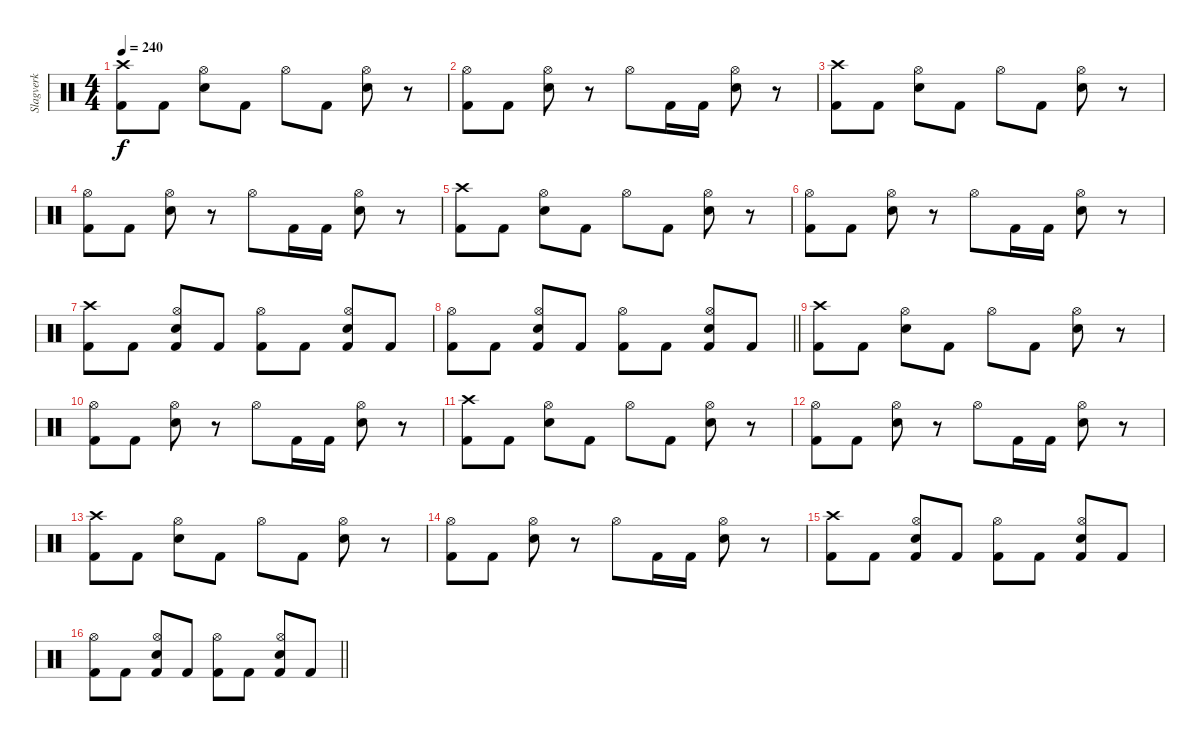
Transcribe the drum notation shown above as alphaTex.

\track ("Slagverk" "Slagverk") {instrument percussion}
\staff {score}
\articulation defaults
\ts (4 4)
\section ("" "")
\tempo 240
\clef neutral
\ks c
("Crash high (hit)" "Kick (hit) 2").8{dy f} "Kick (hit) 2".8 ("Hi-Hat (open)" "Electric Snare (hit)").8 "Kick (hit) 2".8 "Hi-Hat (open)".8 "Kick (hit) 2".8 ("Hi-Hat (open)" "Electric Snare (hit)").8 r.8 |
("Hi-Hat (open)" "Kick (hit) 2").8 "Kick (hit) 2".8 ("Hi-Hat (open)" "Electric Snare (hit)").8 r.8 "Hi-Hat (open)".8 "Kick (hit) 2".16 "Kick (hit) 2".16 ("Hi-Hat (open)" "Electric Snare (hit)").8 r.8 |
("Crash high (hit)" "Kick (hit) 2").8 "Kick (hit) 2".8 ("Hi-Hat (open)" "Electric Snare (hit)").8 "Kick (hit) 2".8 "Hi-Hat (open)".8 "Kick (hit) 2".8 ("Hi-Hat (open)" "Electric Snare (hit)").8 r.8 |
("Hi-Hat (open)" "Kick (hit) 2").8 "Kick (hit) 2".8 ("Hi-Hat (open)" "Electric Snare (hit)").8 r.8 "Hi-Hat (open)".8 "Kick (hit) 2".16 "Kick (hit) 2".16 ("Hi-Hat (open)" "Electric Snare (hit)").8 r.8 |
("Crash high (hit)" "Kick (hit) 2").8 "Kick (hit) 2".8 ("Hi-Hat (open)" "Electric Snare (hit)").8 "Kick (hit) 2".8 "Hi-Hat (open)".8 "Kick (hit) 2".8 ("Hi-Hat (open)" "Electric Snare (hit)").8 r.8 |
("Hi-Hat (open)" "Kick (hit) 2").8 "Kick (hit) 2".8 ("Hi-Hat (open)" "Electric Snare (hit)").8 r.8 "Hi-Hat (open)".8 "Kick (hit) 2".16 "Kick (hit) 2".16 ("Hi-Hat (open)" "Electric Snare (hit)").8 r.8 |
("Crash high (hit)" "Kick (hit) 2").8 "Kick (hit) 2".8 ("Hi-Hat (open)" "Electric Snare (hit)" "Kick (hit) 2").8 "Kick (hit) 2".8 ("Hi-Hat (open)" "Kick (hit) 2").8 "Kick (hit) 2".8 ("Hi-Hat (open)" "Electric Snare (hit)" "Kick (hit) 2").8 "Kick (hit) 2".8 |
\barLineRight lightlight
("Hi-Hat (open)" "Kick (hit) 2").8 "Kick (hit) 2".8 ("Hi-Hat (open)" "Electric Snare (hit)" "Kick (hit) 2").8 "Kick (hit) 2".8 ("Hi-Hat (open)" "Kick (hit) 2").8 "Kick (hit) 2".8 ("Hi-Hat (open)" "Electric Snare (hit)" "Kick (hit) 2").8 "Kick (hit) 2".8 |
\section ("" "")
("Crash high (hit)" "Kick (hit) 2").8 "Kick (hit) 2".8 ("Hi-Hat (open)" "Electric Snare (hit)").8 "Kick (hit) 2".8 "Hi-Hat (open)".8 "Kick (hit) 2".8 ("Hi-Hat (open)" "Electric Snare (hit)").8 r.8 |
("Hi-Hat (open)" "Kick (hit) 2").8 "Kick (hit) 2".8 ("Hi-Hat (open)" "Electric Snare (hit)").8 r.8 "Hi-Hat (open)".8 "Kick (hit) 2".16 "Kick (hit) 2".16 ("Hi-Hat (open)" "Electric Snare (hit)").8 r.8 |
("Crash high (hit)" "Kick (hit) 2").8 "Kick (hit) 2".8 ("Hi-Hat (open)" "Electric Snare (hit)").8 "Kick (hit) 2".8 "Hi-Hat (open)".8 "Kick (hit) 2".8 ("Hi-Hat (open)" "Electric Snare (hit)").8 r.8 |
("Hi-Hat (open)" "Kick (hit) 2").8 "Kick (hit) 2".8 ("Hi-Hat (open)" "Electric Snare (hit)").8 r.8 "Hi-Hat (open)".8 "Kick (hit) 2".16 "Kick (hit) 2".16 ("Hi-Hat (open)" "Electric Snare (hit)").8 r.8 |
("Crash high (hit)" "Kick (hit) 2").8 "Kick (hit) 2".8 ("Hi-Hat (open)" "Electric Snare (hit)").8 "Kick (hit) 2".8 "Hi-Hat (open)".8 "Kick (hit) 2".8 ("Hi-Hat (open)" "Electric Snare (hit)").8 r.8 |
("Hi-Hat (open)" "Kick (hit) 2").8 "Kick (hit) 2".8 ("Hi-Hat (open)" "Electric Snare (hit)").8 r.8 "Hi-Hat (open)".8 "Kick (hit) 2".16 "Kick (hit) 2".16 ("Hi-Hat (open)" "Electric Snare (hit)").8 r.8 |
("Crash high (hit)" "Kick (hit) 2").8 "Kick (hit) 2".8 ("Hi-Hat (open)" "Electric Snare (hit)" "Kick (hit) 2").8 "Kick (hit) 2".8 ("Hi-Hat (open)" "Kick (hit) 2").8 "Kick (hit) 2".8 ("Hi-Hat (open)" "Electric Snare (hit)" "Kick (hit) 2").8 "Kick (hit) 2".8 |
\barLineRight lightlight
("Hi-Hat (open)" "Kick (hit) 2").8 "Kick (hit) 2".8 ("Hi-Hat (open)" "Electric Snare (hit)" "Kick (hit) 2").8 "Kick (hit) 2".8 ("Hi-Hat (open)" "Kick (hit) 2").8 "Kick (hit) 2".8 ("Hi-Hat (open)" "Electric Snare (hit)" "Kick (hit) 2").8 "Kick (hit) 2".8
